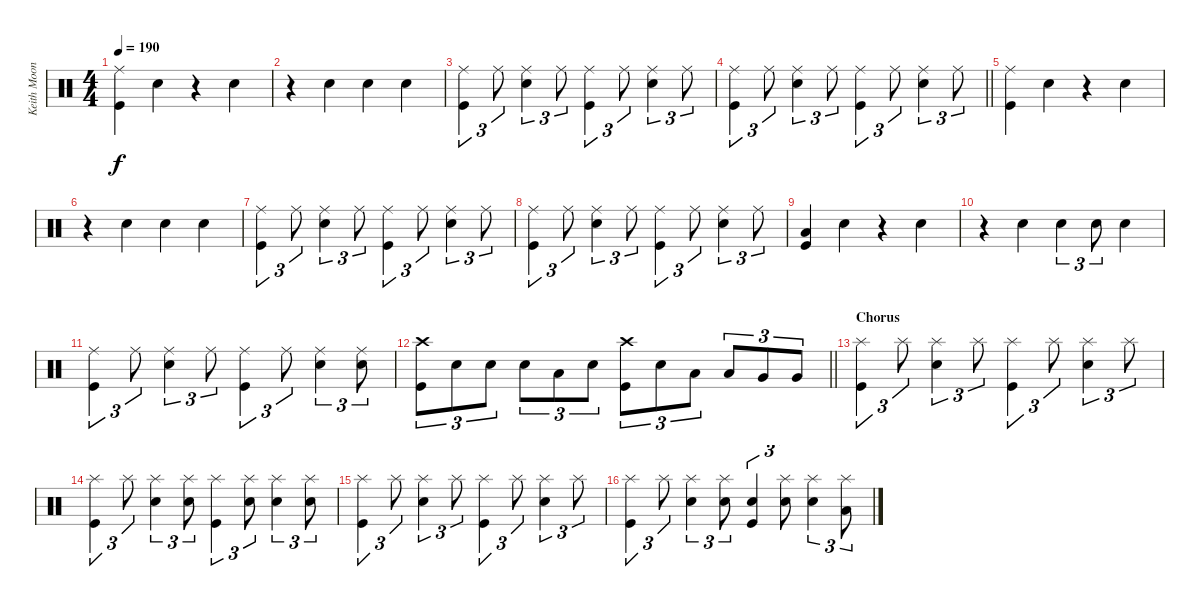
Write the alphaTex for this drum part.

\track ("Keith Moon" "Keith Moon") {instrument percussion}
\staff {score}
\articulation defaults
\ts (4 4)
\tempo 190
\clef neutral
\ks c
("Ride (middle)" "Kick (hit)").4{dy f} "Hand Clap (hit)".4 r.4 "Hand Clap (hit)".4 |
r.4 "Hand Clap (hit)".4 "Hand Clap (hit)".4 "Snare (hit) 2".4 |
("Ride (middle)" "Kick (hit)").4{tu (3 2)} "Ride (middle)".8{tu (3 2)} ("Ride (middle)" "Snare (hit) 2").4{tu (3 2)} "Ride (middle)".8{tu (3 2)} ("Ride (middle)" "Kick (hit)").4{tu (3 2)} "Ride (middle)".8{tu (3 2)} ("Ride (middle)" "Snare (hit) 2").4{tu (3 2)} "Ride (middle)".8{tu (3 2)} |
\barLineRight lightlight
("Ride (middle)" "Kick (hit)").4{tu (3 2)} "Ride (middle)".8{tu (3 2)} ("Ride (middle)" "Snare (hit) 2").4{tu (3 2)} "Ride (middle)".8{tu (3 2)} ("Ride (middle)" "Kick (hit)").4{tu (3 2)} "Ride (middle)".8{tu (3 2)} ("Ride (middle)" "Snare (hit) 2").4{tu (3 2)} "Ride (middle)".8{tu (3 2)} |
("Ride (middle)" "Kick (hit)").4 "Hand Clap (hit)".4 r.4 "Hand Clap (hit)".4 |
r.4 "Hand Clap (hit)".4 "Hand Clap (hit)".4 "Snare (hit) 2".4 |
("Ride (middle)" "Kick (hit)").4{tu (3 2)} "Ride (middle)".8{tu (3 2)} ("Ride (middle)" "Snare (hit) 2").4{tu (3 2)} "Ride (middle)".8{tu (3 2)} ("Ride (middle)" "Kick (hit)").4{tu (3 2)} "Ride (middle)".8{tu (3 2)} ("Ride (middle)" "Snare (hit) 2").4{tu (3 2)} "Ride (middle)".8{tu (3 2)} |
("Ride (middle)" "Kick (hit)").4{tu (3 2)} "Ride (middle)".8{tu (3 2)} ("Ride (middle)" "Snare (hit) 2").4{tu (3 2)} "Ride (middle)".8{tu (3 2)} ("Ride (middle)" "Kick (hit)").4{tu (3 2)} "Ride (middle)".8{tu (3 2)} ("Ride (middle)" "Snare (hit) 2").4{tu (3 2)} "Ride (middle)".8{tu (3 2)} |
("Low Tom (hit)" "Kick (hit)").4 "Hand Clap (hit)".4 r.4 "Hand Clap (hit)".4 |
r.4 "Hand Clap (hit)".4 "Hand Clap (hit)".4{tu (3 2)} "Snare (hit) 2".8{tu (3 2)} "Snare (hit) 2".4 |
("Ride (middle)" "Kick (hit)").4{tu (3 2)} "Ride (middle)".8{tu (3 2)} ("Ride (middle)" "Snare (hit) 2").4{tu (3 2)} "Ride (middle)".8{tu (3 2)} ("Ride (middle)" "Kick (hit)").4{tu (3 2)} "Ride (middle)".8{tu (3 2)} ("Ride (middle)" "Snare (hit) 2").4{tu (3 2)} ("Ride (middle)" "Snare (hit) 2").8{tu (3 2)} |
\barLineRight lightlight
("Crash high (hit)" "Kick (hit)").8{tu (3 2)} "Snare (hit) 2".8{tu (3 2)} "Snare (hit) 2".8{tu (3 2)} "Snare (hit) 2".8{tu (3 2)} "Low Tom (hit)".8{tu (3 2)} "Snare (hit) 2".8{tu (3 2)} ("Crash high (hit)" "Kick (hit)").8{tu (3 2)} "Snare (hit) 2".8{tu (3 2)} "Low Tom (hit)".8{tu (3 2)} "Low Tom (hit)".8{tu (3 2)} "Very Low Tom (hit)".8{tu (3 2)} "Very Low Tom (hit)".8{tu (3 2)} |
\section ("" "Chorus")
("Splash (hit)" "Kick (hit)").4{tu (3 2)} "Splash (hit)".8{tu (3 2)} ("Splash (hit)" "Snare (hit) 2").4{tu (3 2)} "Splash (hit)".8{tu (3 2)} ("Splash (hit)" "Kick (hit)").4{tu (3 2)} "Splash (hit)".8{tu (3 2)} ("Splash (hit)" "Snare (hit) 2").4{tu (3 2)} "Splash (hit)".8{tu (3 2)} |
("Splash (hit)" "Kick (hit)").4{tu (3 2)} "Splash (hit)".8{tu (3 2)} ("Splash (hit)" "Snare (hit) 2").4{tu (3 2)} ("Splash (hit)" "Snare (hit) 2").8{tu (3 2)} ("Splash (hit)" "Kick (hit)").4{tu (3 2)} ("Splash (hit)" "Snare (hit) 2").8{tu (3 2)} ("Splash (hit)" "Snare (hit) 2").4{tu (3 2)} ("Splash (hit)" "Snare (hit) 2").8{tu (3 2)} |
("Splash (hit)" "Kick (hit)").4{tu (3 2)} "Splash (hit)".8{tu (3 2)} ("Splash (hit)" "Snare (hit) 2").4{tu (3 2)} "Splash (hit)".8{tu (3 2)} ("Splash (hit)" "Kick (hit)").4{tu (3 2)} "Splash (hit)".8{tu (3 2)} ("Splash (hit)" "Snare (hit) 2").4{tu (3 2)} "Splash (hit)".8{tu (3 2)} |
("Splash (hit)" "Kick (hit)").4{tu (3 2)} "Splash (hit)".8{tu (3 2)} ("Splash (hit)" "Snare (hit) 2").4{tu (3 2)} ("Splash (hit)" "Snare (hit) 2").8{tu (3 2)} ("Snare (hit)" "Kick (hit)").4{tu (3 2)} ("Splash (hit)" "Snare (hit) 2").8{tu (3 2)} ("Splash (hit)" "Snare (hit) 2").4{tu (3 2)} ("Splash (hit)" "Low Tom (hit)").8{tu (3 2)}
